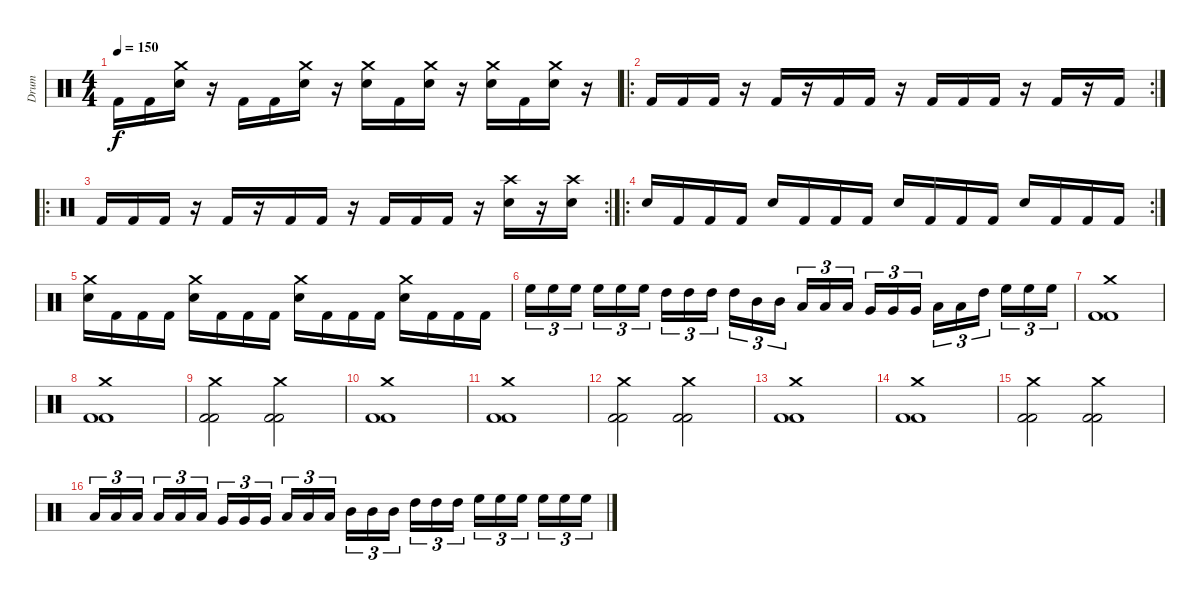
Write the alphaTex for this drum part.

\track ("Drum" "Drum") {instrument percussion}
\staff {score}
\articulation defaults
\ts (4 4)
\tempo 150
\clef neutral
\ks c "Kick (hit) 2".16{dy f} "Kick (hit) 2".16
("Electric Snare (hit)" "Crash medium (hit)").16 r.16 "Kick (hit) 2".16 "Kick (hit) 2".16 ("Electric Snare (hit)" "Crash medium (hit)").16 r.16 ("Crash medium (hit)" "Electric Snare (hit)").16 "Kick (hit) 2".16 ("Crash medium (hit)" "Electric Snare (hit)").16 r.16 ("Crash medium (hit)" "Electric Snare (hit)").16 "Kick (hit) 2".16 ("Crash medium (hit)" "Electric Snare (hit)").16 r.16 |
\ro
\rc 2 "Kick (hit) 2".16 "Kick (hit) 2".16 "Kick (hit) 2".16
r.16 "Kick (hit) 2".16 r.16 "Kick (hit) 2".16 "Kick (hit) 2".16 r.16 "Kick (hit) 2".16 "Kick (hit) 2".16 "Kick (hit) 2".16 r.16 "Kick (hit) 2".16 r.16 "Kick (hit) 2".16 |
\ro
\rc 2 "Kick (hit) 2".16 "Kick (hit) 2".16 "Kick (hit) 2".16
r.16 "Kick (hit) 2".16 r.16 "Kick (hit) 2".16 "Kick (hit) 2".16 r.16 "Kick (hit) 2".16 "Kick (hit) 2".16 "Kick (hit) 2".16 r.16 ("Crash high (hit)" "Electric Snare (hit)").16 r.16 ("Crash high (hit)" "Electric Snare (hit)").16 |
\ro
\rc 2 "Snare (hit) 2".16 "Kick (hit) 2".16 "Kick (hit) 2".16 "Kick (hit) 2".16 "Snare (hit) 2".16 "Kick (hit) 2".16 "Kick (hit) 2".16 "Kick (hit) 2".16 "Snare (hit) 2".16 "Kick (hit) 2".16 "Kick (hit) 2".16 "Kick (hit) 2".16 "Snare (hit) 2".16 "Kick (hit) 2".16 "Kick (hit) 2".16 "Kick (hit) 2".16
|
("Crash medium (hit)" "Electric Snare (hit)").16 "Kick (hit) 2".16 "Kick (hit) 2".16 "Kick (hit) 2".16 ("Crash medium (hit)" "Electric Snare (hit)").16 "Kick (hit) 2".16 "Kick (hit) 2".16 "Kick (hit) 2".16 ("Crash medium (hit)" "Electric Snare (hit)").16 "Kick (hit) 2".16 "Kick (hit) 2".16 "Kick (hit) 2".16 ("Crash medium (hit)" "Electric Snare (hit)").16 "Kick (hit) 2".16 "Kick (hit) 2".16 "Kick (hit) 2".16 |
"High Floor Tom (hit)".16{tu (3 2)} "High Floor Tom (hit)".16{tu (3 2)} "High Floor Tom (hit)".16{tu (3 2)} "High Floor Tom (hit)".16{tu (3 2)} "High Floor Tom (hit)".16{tu (3 2)} "High Floor Tom (hit)".16{tu (3 2)} "High Tom (hit)".16{tu (3 2)} "High Tom (hit)".16{tu (3 2)} "High Tom (hit)".16{tu (3 2)} "High Tom (hit)".16{tu (3 2)} "Mid Tom (hit)".16{tu (3 2)} "Mid Tom (hit)".16{tu (3 2)} "Low Tom (hit)".16{tu (3 2)} "Low Tom (hit)".16{tu (3 2)} "Low Tom (hit)".16{tu (3 2)} "Very Low Tom (hit)".16{tu (3 2)} "Very Low Tom (hit)".16{tu (3 2)} "Very Low Tom (hit)".16{tu (3 2)} "Low Floor Tom (hit)".16{tu (3 2)} "Low Floor Tom (hit)".16{tu (3 2)} "High Tom (hit)".16{tu (3 2)} "High Floor Tom (hit)".16{tu (3 2)} "High Floor Tom (hit)".16{tu (3 2)} "High Floor Tom (hit)".16{tu (3 2)} |
("Crash medium (hit)" "Kick (hit) 2" "Kick (hit) 2").1 |
("Crash medium (hit)" "Kick (hit) 2" "Kick (hit) 2").1 |
("Crash medium (hit)" "Kick (hit) 2" "Kick (hit) 2").2 ("Crash medium (hit)" "Kick (hit) 2" "Kick (hit) 2").2 |
("Crash medium (hit)" "Kick (hit) 2" "Kick (hit) 2").1 |
("Crash medium (hit)" "Kick (hit) 2" "Kick (hit) 2").1 |
("Crash medium (hit)" "Kick (hit) 2" "Kick (hit) 2").2 ("Crash medium (hit)" "Kick (hit) 2" "Kick (hit) 2").2 |
("Crash medium (hit)" "Kick (hit) 2" "Kick (hit) 2").1 |
("Crash medium (hit)" "Kick (hit) 2" "Kick (hit) 2").1 |
("Crash medium (hit)" "Kick (hit) 2" "Kick (hit) 2").2 ("Crash medium (hit)" "Kick (hit) 2" "Kick (hit) 2").2 |
"Low Floor Tom (hit)".16{tu (3 2)} "Low Floor Tom (hit)".16{tu (3 2)} "Low Floor Tom (hit)".16{tu (3 2)} "Low Floor Tom (hit)".16{tu (3 2)} "Low Floor Tom (hit)".16{tu (3 2)} "Low Floor Tom (hit)".16{tu (3 2)} "Very Low Tom (hit)".16{tu (3 2)} "Very Low Tom (hit)".16{tu (3 2)} "Very Low Tom (hit)".16{tu (3 2)} "Low Tom (hit)".16{tu (3 2)} "Low Tom (hit)".16{tu (3 2)} "Low Tom (hit)".16{tu (3 2)} "Mid Tom (hit)".16{tu (3 2)} "Mid Tom (hit)".16{tu (3 2)} "Mid Tom (hit)".16{tu (3 2)} "High Tom (hit)".16{tu (3 2)} "High Tom (hit)".16{tu (3 2)} "High Tom (hit)".16{tu (3 2)} "High Floor Tom (hit)".16{tu (3 2)} "High Floor Tom (hit)".16{tu (3 2)} "High Floor Tom (hit)".16{tu (3 2)} "High Floor Tom (hit)".16{tu (3 2)} "High Floor Tom (hit)".16{tu (3 2)} "High Floor Tom (hit)".16{tu (3 2)}
